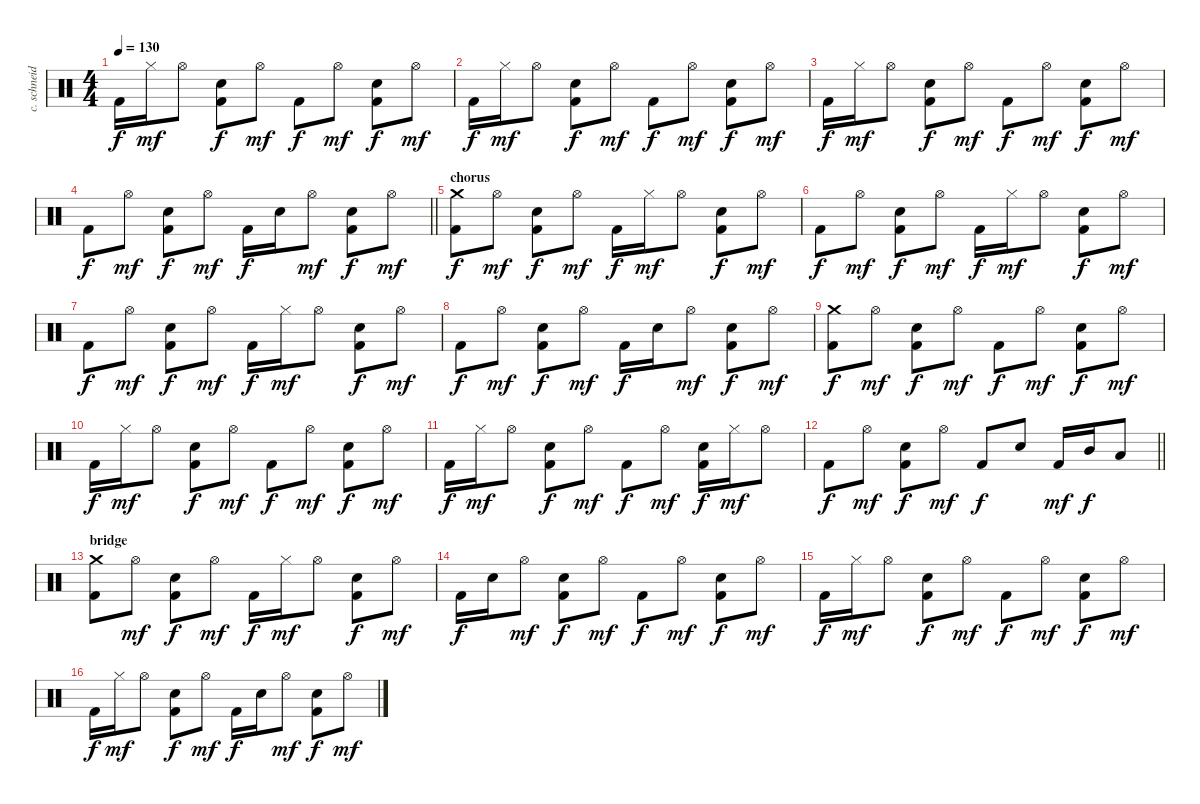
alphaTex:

\track ("c. schneider - drums" "c. schneid") {instrument percussion}
\staff {score}
\articulation defaults
\ts (4 4)
\tempo 130
\clef neutral
\ks c "Kick (hit) 2".16{dy f} "Hi-Hat (closed)".16{dy mf} "Hi-Hat (open)".8
("Electric Snare (hit)" "Kick (hit) 2").8{dy f} "Hi-Hat (open)".8{dy mf} "Kick (hit) 2".8{dy f} "Hi-Hat (open)".8{dy mf} ("Electric Snare (hit)" "Kick (hit) 2").8{dy f} "Hi-Hat (open)".8{dy mf} |
"Kick (hit) 2".16{dy f} "Hi-Hat (closed)".16{dy mf} "Hi-Hat (open)".8 ("Electric Snare (hit)" "Kick (hit) 2").8{dy f} "Hi-Hat (open)".8{dy mf} "Kick (hit) 2".8{dy f} "Hi-Hat (open)".8{dy mf} ("Electric Snare (hit)" "Kick (hit) 2").8{dy f} "Hi-Hat (open)".8{dy mf} |
"Kick (hit) 2".16{dy f} "Hi-Hat (closed)".16{dy mf} "Hi-Hat (open)".8 ("Electric Snare (hit)" "Kick (hit) 2").8{dy f} "Hi-Hat (open)".8{dy mf} "Kick (hit) 2".8{dy f} "Hi-Hat (open)".8{dy mf} ("Electric Snare (hit)" "Kick (hit) 2").8{dy f} "Hi-Hat (open)".8{dy mf} |
\barLineRight lightlight "Kick (hit) 2".8{dy f} "Hi-Hat (open)".8{dy mf}
("Electric Snare (hit)" "Kick (hit) 2").8{dy f} "Hi-Hat (open)".8{dy mf} "Kick (hit) 2".16{dy f} "Electric Snare (hit)".16 "Hi-Hat (open)".8{dy mf} ("Electric Snare (hit)" "Kick (hit) 2").8{dy f} "Hi-Hat (open)".8{dy mf} |
\section ("" "chorus")
("Crash medium (hit)" "Kick (hit) 2").8{dy f} "Hi-Hat (open)".8{dy mf} ("Electric Snare (hit)" "Kick (hit) 2").8{dy f} "Hi-Hat (open)".8{dy mf} "Kick (hit) 2".16{dy f} "Hi-Hat (closed)".16{dy mf} "Hi-Hat (open)".8 ("Electric Snare (hit)" "Kick (hit) 2").8{dy f} "Hi-Hat (open)".8{dy mf} |
"Kick (hit) 2".8{dy f} "Hi-Hat (open)".8{dy mf} ("Electric Snare (hit)" "Kick (hit) 2").8{dy f} "Hi-Hat (open)".8{dy mf} "Kick (hit) 2".16{dy f} "Hi-Hat (closed)".16{dy mf} "Hi-Hat (open)".8 ("Electric Snare (hit)" "Kick (hit) 2").8{dy f} "Hi-Hat (open)".8{dy mf} |
"Kick (hit) 2".8{dy f} "Hi-Hat (open)".8{dy mf} ("Electric Snare (hit)" "Kick (hit) 2").8{dy f} "Hi-Hat (open)".8{dy mf} "Kick (hit) 2".16{dy f} "Hi-Hat (closed)".16{dy mf} "Hi-Hat (open)".8 ("Electric Snare (hit)" "Kick (hit) 2").8{dy f} "Hi-Hat (open)".8{dy mf} |
"Kick (hit) 2".8{dy f} "Hi-Hat (open)".8{dy mf} ("Electric Snare (hit)" "Kick (hit) 2").8{dy f} "Hi-Hat (open)".8{dy mf} "Kick (hit) 2".16{dy f} "Electric Snare (hit)".16 "Hi-Hat (open)".8{dy mf} ("Electric Snare (hit)" "Kick (hit) 2").8{dy f} "Hi-Hat (open)".8{dy mf} |
("Crash medium (hit)" "Kick (hit) 2").8{dy f} "Hi-Hat (open)".8{dy mf} ("Electric Snare (hit)" "Kick (hit) 2").8{dy f} "Hi-Hat (open)".8{dy mf} "Kick (hit) 2".8{dy f} "Hi-Hat (open)".8{dy mf} ("Electric Snare (hit)" "Kick (hit) 2").8{dy f} "Hi-Hat (open)".8{dy mf} |
"Kick (hit) 2".16{dy f} "Hi-Hat (closed)".16{dy mf} "Hi-Hat (open)".8 ("Electric Snare (hit)" "Kick (hit) 2").8{dy f} "Hi-Hat (open)".8{dy mf} "Kick (hit) 2".8{dy f} "Hi-Hat (open)".8{dy mf} ("Electric Snare (hit)" "Kick (hit) 2").8{dy f} "Hi-Hat (open)".8{dy mf} |
"Kick (hit) 2".16{dy f} "Hi-Hat (closed)".16{dy mf} "Hi-Hat (open)".8 ("Electric Snare (hit)" "Kick (hit) 2").8{dy f} "Hi-Hat (open)".8{dy mf} "Kick (hit) 2".8{dy f} "Hi-Hat (open)".8{dy mf} ("Electric Snare (hit)" "Kick (hit) 2").16{dy f} "Hi-Hat (closed)".16{dy mf} "Hi-Hat (open)".8 |
\barLineRight lightlight "Kick (hit) 2".8{dy f} "Hi-Hat (open)".8{dy mf}
("Electric Snare (hit)" "Kick (hit) 2").8{dy f} "Hi-Hat (open)".8{dy mf} "Kick (hit) 2".8{dy f} "Electric Snare (hit)".8 "Kick (hit) 2".16{dy mf} "Mid Tom (hit)".16{dy f} "Low Tom (hit)".8 |
\section ("" "bridge")
("Crash medium (hit)" "Kick (hit) 2").8 "Hi-Hat (open)".8{dy mf} ("Electric Snare (hit)" "Kick (hit) 2").8{dy f} "Hi-Hat (open)".8{dy mf} "Kick (hit) 2".16{dy f} "Hi-Hat (closed)".16{dy mf} "Hi-Hat (open)".8 ("Electric Snare (hit)" "Kick (hit) 2").8{dy f} "Hi-Hat (open)".8{dy mf} |
"Kick (hit) 2".16{dy f} "Electric Snare (hit)".16 "Hi-Hat (open)".8{dy mf} ("Electric Snare (hit)" "Kick (hit) 2").8{dy f} "Hi-Hat (open)".8{dy mf} "Kick (hit) 2".8{dy f} "Hi-Hat (open)".8{dy mf} ("Electric Snare (hit)" "Kick (hit) 2").8{dy f} "Hi-Hat (open)".8{dy mf} |
"Kick (hit) 2".16{dy f} "Hi-Hat (closed)".16{dy mf} "Hi-Hat (open)".8 ("Electric Snare (hit)" "Kick (hit) 2").8{dy f} "Hi-Hat (open)".8{dy mf} "Kick (hit) 2".8{dy f} "Hi-Hat (open)".8{dy mf} ("Electric Snare (hit)" "Kick (hit) 2").8{dy f} "Hi-Hat (open)".8{dy mf} |
"Kick (hit) 2".16{dy f} "Hi-Hat (closed)".16{dy mf} "Hi-Hat (open)".8 ("Electric Snare (hit)" "Kick (hit) 2").8{dy f} "Hi-Hat (open)".8{dy mf} "Kick (hit) 2".16{dy f} "Electric Snare (hit)".16 "Hi-Hat (open)".8{dy mf} ("Electric Snare (hit)" "Kick (hit) 2").8{dy f} "Hi-Hat (open)".8{dy mf}
